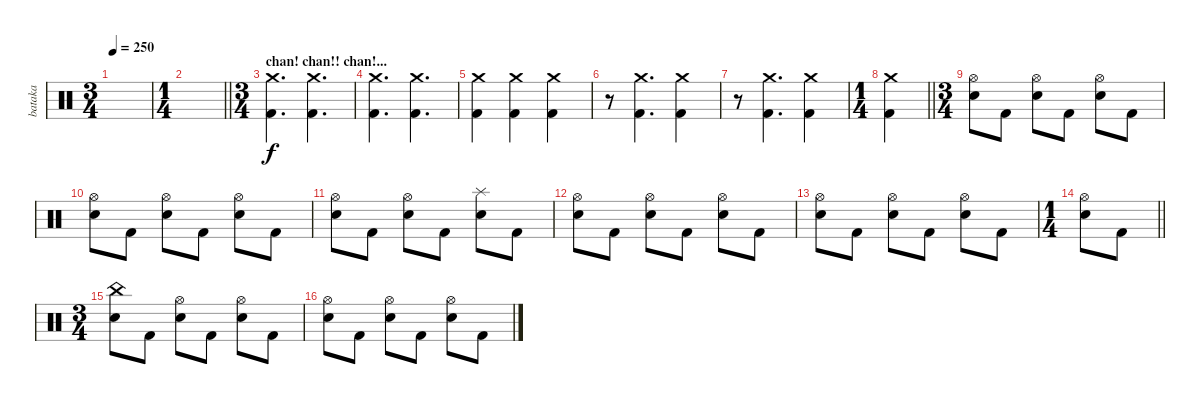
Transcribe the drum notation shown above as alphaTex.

\track ("bataka" "bataka") {instrument percussion}
\staff {score}
\articulation defaults
\ts (3 4)
\tempo 250
\clef neutral
\ks c
|
\ts (1 4)
\barLineRight lightlight
|
\ts (3 4)
\section ("" "chan! chan!! chan!...")
("Crash medium (hit)" "Kick (hit) 2").4{d} ("Crash medium (hit)" "Kick (hit) 2").4{d} |
("Crash medium (hit)" "Kick (hit) 2").4{d} ("Crash medium (hit)" "Kick (hit) 2").4{d} |
("Crash medium (hit)" "Kick (hit) 2").4 ("Crash medium (hit)" "Kick (hit) 2").4 ("Crash medium (hit)" "Kick (hit) 2").4 |
r.8 ("Crash medium (hit)" "Kick (hit) 2").4{d} ("Crash medium (hit)" "Kick (hit) 2").4 |
r.8 ("Crash medium (hit)" "Kick (hit) 2").4{d} ("Crash medium (hit)" "Kick (hit) 2").4 |
\ts (1 4)
\barLineRight lightlight
("Crash medium (hit)" "Kick (hit) 2").4 |
\ts (3 4)
\section ("" "")
("Hi-Hat (open)" "Electric Snare (hit)").8 "Kick (hit) 2".8 ("Hi-Hat (open)" "Electric Snare (hit)").8 "Kick (hit) 2".8 ("Hi-Hat (open)" "Electric Snare (hit)").8 "Kick (hit) 2".8 |
("Hi-Hat (open)" "Electric Snare (hit)").8 "Kick (hit) 2".8 ("Hi-Hat (open)" "Electric Snare (hit)").8 "Kick (hit) 2".8 ("Hi-Hat (open)" "Electric Snare (hit)").8 "Kick (hit) 2".8 |
("Hi-Hat (open)" "Electric Snare (hit)").8 "Kick (hit) 2".8 ("Hi-Hat (open)" "Electric Snare (hit)").8 "Kick (hit) 2".8 ("Splash (hit)" "Electric Snare (hit)").8 "Kick (hit) 2".8 |
("Hi-Hat (open)" "Electric Snare (hit)").8 "Kick (hit) 2".8 ("Hi-Hat (open)" "Electric Snare (hit)").8 "Kick (hit) 2".8 ("Hi-Hat (open)" "Electric Snare (hit)").8 "Kick (hit) 2".8 |
("Hi-Hat (open)" "Electric Snare (hit)").8 "Kick (hit) 2".8 ("Hi-Hat (open)" "Electric Snare (hit)").8 "Kick (hit) 2".8 ("Hi-Hat (open)" "Electric Snare (hit)").8 "Kick (hit) 2".8 |
\ts (1 4)
\barLineRight lightlight
("Hi-Hat (open)" "Electric Snare (hit)").8 "Kick (hit) 2".8 |
\ts (3 4)
("China (hit)" "Electric Snare (hit)").8 "Kick (hit) 2".8 ("Hi-Hat (open)" "Electric Snare (hit)").8 "Kick (hit) 2".8 ("Hi-Hat (open)" "Electric Snare (hit)").8 "Kick (hit) 2".8 |
("Hi-Hat (open)" "Electric Snare (hit)").8 "Kick (hit) 2".8 ("Hi-Hat (open)" "Electric Snare (hit)").8 "Kick (hit) 2".8 ("Hi-Hat (open)" "Electric Snare (hit)").8 "Kick (hit) 2".8
